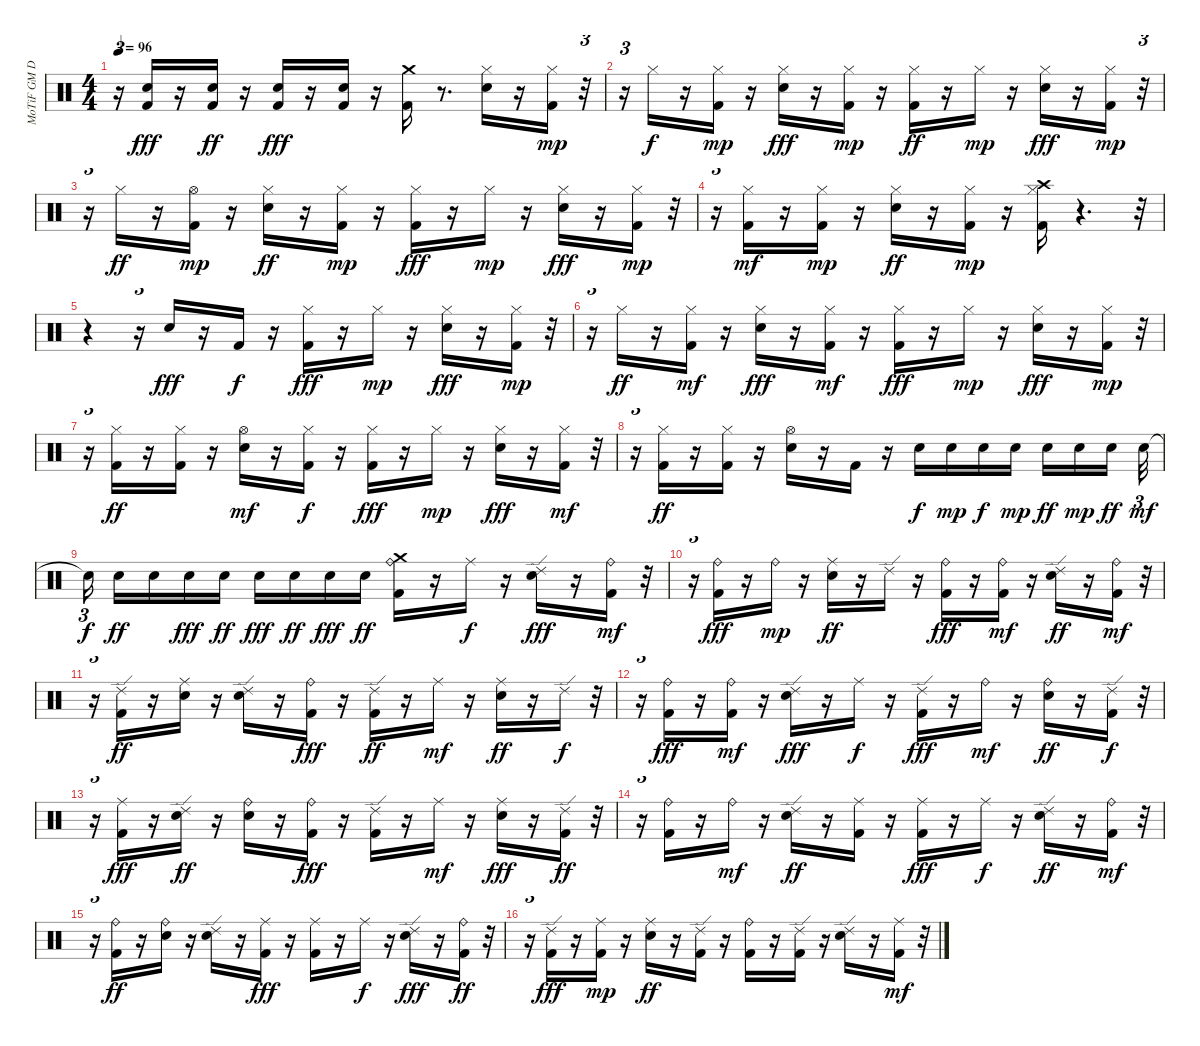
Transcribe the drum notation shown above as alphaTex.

\track ("MoTiF GM Drums" "MoTiF GM D") {instrument percussion}
\staff {score}
\articulation defaults
\ts (4 4)
\tempo 96
\clef neutral
\ks c
r.16{tu (3 2) dy f} ("Kick (hit) 2" "Electric Snare (hit)").16{dy fff} r.16 ("Kick (hit) 2" "Electric Snare (hit)").16{dy ff} r.16 ("Kick (hit) 2" "Electric Snare (hit)").16{dy fff} r.16 ("Kick (hit) 2" "Electric Snare (hit)").16 r.16 ("Kick (hit) 2" "Crash medium (hit)").16 r.8{d} ("Electric Snare (hit)" "Hi-Hat (closed)").16 r.16 ("Kick (hit) 2" "Hi-Hat (closed)").16{dy mp} r.32{tu (3 2)} |
r.16{tu (3 2)} "Hi-Hat (closed)".16{dy f} r.16 ("Kick (hit) 2" "Hi-Hat (closed)").16{dy mp} r.16 ("Electric Snare (hit)" "Hi-Hat (closed)").16{dy fff} r.16 ("Kick (hit) 2" "Hi-Hat (closed)").16{dy mp} r.16 ("Kick (hit) 2" "Hi-Hat (closed)").16{dy ff} r.16 "Hi-Hat (closed)".16{dy mp} r.16 ("Electric Snare (hit)" "Hi-Hat (closed)").16{dy fff} r.16 ("Kick (hit) 2" "Hi-Hat (closed)").16{dy mp} r.32{tu (3 2)} |
r.16{tu (3 2)} "Hi-Hat (closed)".16{dy ff} r.16 ("Kick (hit) 2" "Hi-Hat (open)").16{dy mp} r.16 ("Electric Snare (hit)" "Hi-Hat (closed)").16{dy ff} r.16 ("Kick (hit) 2" "Hi-Hat (closed)").16{dy mp} r.16 ("Kick (hit) 2" "Hi-Hat (closed)").16{dy fff} r.16 "Hi-Hat (closed)".16{dy mp} r.16 ("Electric Snare (hit)" "Hi-Hat (closed)").16{dy fff} r.16 ("Kick (hit) 2" "Hi-Hat (closed)").16{dy mp} r.32{tu (3 2)} |
r.16{tu (3 2)} ("Kick (hit) 2" "Hi-Hat (closed)").16{dy mf} r.16 ("Kick (hit) 2" "Hi-Hat (closed)").16{dy mp} r.16 ("Electric Snare (hit)" "Hi-Hat (closed)").16{dy ff} r.16 ("Kick (hit) 2" "Hi-Hat (closed)").16{dy mp} r.16 ("Kick (hit) 2" "Hi-Hat (closed)" "Crash high (hit)").16 r.4{d} r.32{tu (3 2)} |
r.4 r.16{tu (3 2)} "Electric Snare (hit)".16{dy fff} r.16 "Kick (hit) 2".16{dy f} r.16 ("Kick (hit) 2" "Hi-Hat (closed)").16{dy fff} r.16 "Hi-Hat (closed)".16{dy mp} r.16 ("Electric Snare (hit)" "Hi-Hat (closed)").16{dy fff} r.16 ("Kick (hit) 2" "Hi-Hat (closed)").16{dy mp} r.32{tu (3 2)} |
r.16{tu (3 2)} "Hi-Hat (closed)".16{dy ff} r.16 ("Kick (hit) 2" "Hi-Hat (closed)").16{dy mf} r.16 ("Electric Snare (hit)" "Hi-Hat (closed)").16{dy fff} r.16 ("Kick (hit) 2" "Hi-Hat (closed)").16{dy mf} r.16 ("Kick (hit) 2" "Hi-Hat (closed)").16{dy fff} r.16 "Hi-Hat (closed)".16{dy mp} r.16 ("Electric Snare (hit)" "Hi-Hat (closed)").16{dy fff} r.16 ("Kick (hit) 2" "Hi-Hat (closed)").16{dy mp} r.32{tu (3 2)} |
r.16{tu (3 2)} ("Kick (hit) 2" "Hi-Hat (closed)").16{dy ff} r.16 ("Kick (hit) 2" "Hi-Hat (closed)").16 r.16 ("Electric Snare (hit)" "Hi-Hat (open)").16{dy mf} r.16 ("Kick (hit) 2" "Hi-Hat (closed)").16{dy f} r.16 ("Kick (hit) 2" "Hi-Hat (closed)").16{dy fff} r.16 "Hi-Hat (closed)".16{dy mp} r.16 ("Electric Snare (hit)" "Hi-Hat (closed)").16{dy fff} r.16 ("Kick (hit) 2" "Hi-Hat (closed)").16{dy mf} r.32{tu (3 2)} |
r.16{tu (3 2)} ("Kick (hit) 2" "Hi-Hat (closed)").16{dy ff} r.16 ("Kick (hit) 2" "Hi-Hat (closed)").16 r.16 ("Electric Snare (hit)" "Hi-Hat (open)").16 r.16 "Kick (hit) 2".16 r.16 "Electric Snare (hit)".16{dy f} "Electric Snare (hit)".16{dy mp} "Electric Snare (hit)".16{dy f} "Electric Snare (hit)".16{dy mp} "Electric Snare (hit)".16{dy ff} "Electric Snare (hit)".16{dy mp} "Electric Snare (hit)".16{dy ff} "Electric Snare (hit)".32{tu (3 2) dy mf} |
"Snare (hit)"{t}.16{tu (3 2) dy f} "Electric Snare (hit)".16{dy ff} "Electric Snare (hit)".16 "Electric Snare (hit)".16{dy fff} "Electric Snare (hit)".16{dy ff} "Electric Snare (hit)".16{dy fff} "Electric Snare (hit)".16{dy ff} "Electric Snare (hit)".16{dy fff} "Electric Snare (hit)".16{dy ff} ("Kick (hit) 2" "Ride (bell)" "Crash medium (hit)").16 r.16 "Ride (middle)".16{dy f} r.16 ("Electric Snare (hit)" "Ride (edge) 2").16{dy fff} r.16 ("Kick (hit) 2" "Ride (bell)").16{dy mf} r.32{tu (3 2)} |
r.16{tu (3 2)} ("Kick (hit) 2" "Ride (bell)").16{dy fff} r.16 "Ride (bell)".16{dy mp} r.16 ("Electric Snare (hit)" "Ride (middle)").16{dy ff} r.16 "Ride (edge) 2".16 r.16 ("Kick (hit) 2" "Ride (bell)").16{dy fff} r.16 ("Kick (hit) 2" "Ride (bell)").16{dy mf} r.16 ("Electric Snare (hit)" "Ride (edge) 2").16{dy ff} r.16 ("Kick (hit) 2" "Ride (bell)").16{dy mf} r.32{tu (3 2)} |
r.16{tu (3 2)} ("Kick (hit) 2" "Ride (edge) 2").16{dy ff} r.16 ("Electric Snare (hit)" "Ride (middle)").16 r.16 ("Electric Snare (hit)" "Ride (edge) 2").16 r.16 ("Kick (hit) 2" "Ride (bell)").16{dy fff} r.16 ("Kick (hit) 2" "Ride (edge) 2").16{dy ff} r.16 "Ride (middle)".16{dy mf} r.16 ("Electric Snare (hit)" "Ride (middle)").16{dy ff} r.16 "Ride (edge) 2".16{dy f} r.32{tu (3 2)} |
r.16{tu (3 2)} ("Kick (hit) 2" "Ride (bell)").16{dy fff} r.16 ("Kick (hit) 2" "Ride (bell)").16{dy mf} r.16 ("Electric Snare (hit)" "Ride (edge) 2").16{dy fff} r.16 "Ride (middle)".16{dy f} r.16 ("Kick (hit) 2" "Ride (edge) 2").16{dy fff} r.16 "Ride (bell)".16{dy mf} r.16 ("Electric Snare (hit)" "Ride (bell)").16{dy ff} r.16 ("Kick (hit) 2" "Ride (edge) 2").16{dy f} r.32{tu (3 2)} |
r.16{tu (3 2)} ("Kick (hit) 2" "Ride (middle)").16{dy fff} r.16 ("Electric Snare (hit)" "Ride (edge) 2").16{dy ff} r.16 ("Electric Snare (hit)" "Ride (bell)").16 r.16 ("Kick (hit) 2" "Ride (bell)").16{dy fff} r.16 ("Kick (hit) 2" "Ride (edge) 2").16 r.16 "Ride (middle)".16{dy mf} r.16 ("Electric Snare (hit)" "Ride (middle)").16{dy fff} r.16 ("Kick (hit) 2" "Ride (edge) 2").16{dy ff} r.32{tu (3 2)} |
r.16{tu (3 2)} ("Kick (hit) 2" "Ride (bell)").16 r.16 "Ride (bell)".16{dy mf} r.16 ("Electric Snare (hit)" "Ride (edge) 2").16{dy ff} r.16 ("Kick (hit) 2" "Ride (middle)").16 r.16 ("Kick (hit) 2" "Ride (middle)").16{dy fff} r.16 "Ride (middle)".16{dy f} r.16 ("Electric Snare (hit)" "Ride (edge) 2").16{dy ff} r.16 ("Kick (hit) 2" "Ride (bell)").16{dy mf} r.32{tu (3 2)} |
r.16{tu (3 2)} ("Kick (hit) 2" "Ride (bell)").16{dy ff} r.16 ("Electric Snare (hit)" "Ride (bell)").16 r.16 ("Electric Snare (hit)" "Ride (edge) 2").16 r.16 ("Kick (hit) 2" "Ride (middle)").16{dy fff} r.16 ("Kick (hit) 2" "Ride (middle)").16 r.16 "Ride (middle)".16{dy f} r.16 ("Electric Snare (hit)" "Ride (edge) 2").16{dy fff} r.16 ("Kick (hit) 2" "Ride (bell)").16{dy ff} r.32{tu (3 2)} |
r.16{tu (3 2)} ("Kick (hit) 2" "Ride (edge) 2").16{dy fff} r.16 ("Kick (hit) 2" "Ride (middle)").16{dy mp} r.16 ("Electric Snare (hit)" "Ride (middle)").16{dy ff} r.16 ("Kick (hit) 2" "Ride (edge) 2").16 r.16 ("Kick (hit) 2" "Ride (bell)").16 r.16 ("Kick (hit) 2" "Ride (edge) 2").16 r.16 ("Electric Snare (hit)" "Ride (edge) 2").16 r.16 ("Kick (hit) 2" "Ride (middle)").16{dy mf} r.32{tu (3 2)}
